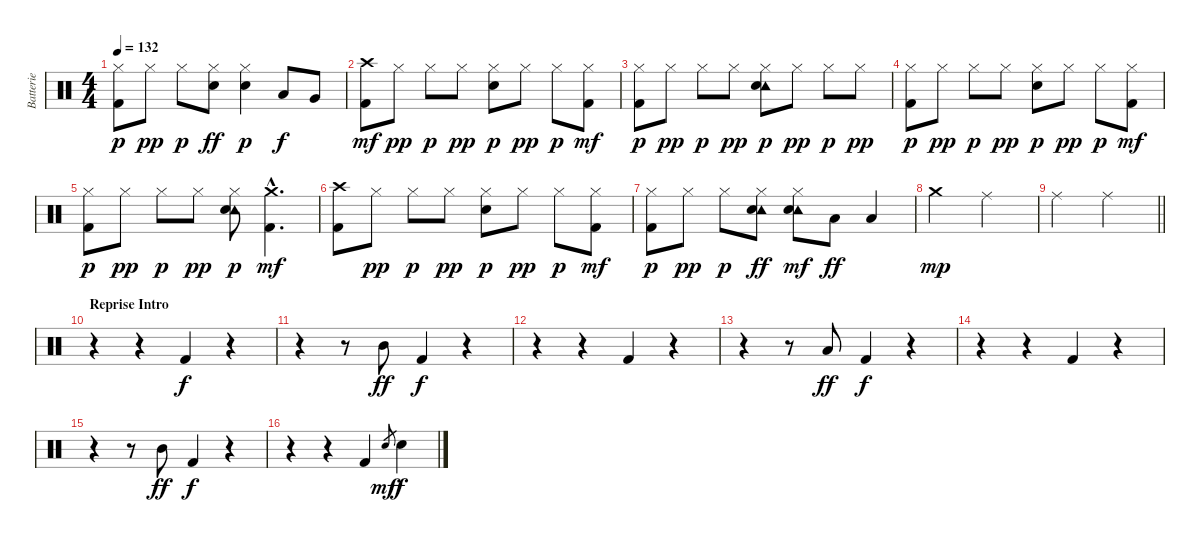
\track ("Batterie" "Batterie") {instrument percussion}
\staff {score}
\articulation defaults
\ts (4 4)
\tempo 132
\clef neutral
\ks c
("Hi-Hat (closed)" "Kick (hit) 2").8{dy p} "Hi-Hat (closed)".8{dy pp} "Hi-Hat (closed)".8{dy p} ("Hi-Hat (closed)" "Electric Snare (hit)").8{dy ff} ("Hi-Hat (closed)" "Electric Snare (hit)").4{dy p} "Low Tom (hit)".8{dy f} "Very Low Tom (hit)".8 |
("Crash high (hit)" "Kick (hit) 2").8{dy mf} "Hi-Hat (closed)".8{dy pp} "Hi-Hat (closed)".8{dy p} "Hi-Hat (closed)".8{dy pp} ("Hi-Hat (closed)" "Electric Snare (hit)").8{dy p} "Hi-Hat (closed)".8{dy pp} "Hi-Hat (closed)".8{dy p} ("Hi-Hat (closed)" "Kick (hit) 2").8{dy mf} |
("Hi-Hat (closed)" "Kick (hit) 2").8{dy p} "Hi-Hat (closed)".8{dy pp} "Hi-Hat (closed)".8{dy p} "Hi-Hat (closed)".8{dy pp} ("Hi-Hat (closed)" "Tambourine (hit)" "Electric Snare (hit)").8{dy p} "Hi-Hat (closed)".8{dy pp} "Hi-Hat (closed)".8{dy p} "Hi-Hat (closed)".8{dy pp} |
("Hi-Hat (closed)" "Kick (hit) 2").8{dy p} "Hi-Hat (closed)".8{dy pp} "Hi-Hat (closed)".8{dy p} "Hi-Hat (closed)".8{dy pp} ("Hi-Hat (closed)" "Electric Snare (hit)").8{dy p} "Hi-Hat (closed)".8{dy pp} "Hi-Hat (closed)".8{dy p} ("Hi-Hat (closed)" "Kick (hit) 2").8{dy mf} |
("Hi-Hat (closed)" "Kick (hit) 2").8{dy p} "Hi-Hat (closed)".8{dy pp} "Hi-Hat (closed)".8{dy p} "Hi-Hat (closed)".8{dy pp} ("Hi-Hat (closed)" "Tambourine (hit)" "Electric Snare (hit)").8{dy p} ("Crash medium (hit)"{hac} "Kick (hit) 2"{hac}).4{d dy mf} |
("Crash high (hit)" "Kick (hit) 2").8 "Hi-Hat (closed)".8{dy pp} "Hi-Hat (closed)".8{dy p} "Hi-Hat (closed)".8{dy pp} ("Hi-Hat (closed)" "Electric Snare (hit)").8{dy p} "Hi-Hat (closed)".8{dy pp} "Hi-Hat (closed)".8{dy p} ("Hi-Hat (closed)" "Kick (hit) 2").8{dy mf} |
("Hi-Hat (closed)" "Kick (hit) 2").8{dy p} "Hi-Hat (closed)".8{dy pp} "Hi-Hat (closed)".8{dy p} ("Hi-Hat (closed)" "Tambourine (hit)" "Electric Snare (hit)").8{dy ff} ("Hi-Hat (closed)" "Tambourine (hit)" "Electric Snare (hit)").8{dy mf} "Low Tom (hit)".8{dy ff} "Low Tom (hit)".4 |
"Crash medium (hit)".2{dy mp} "Ride (middle)".2 |
\barLineRight lightlight "Ride (middle)".2 "Ride (middle)".2
|
\section ("" "Reprise Intro")
r.4 r.4 "Kick (hit) 2".4{dy f} r.4 |
r.4 r.8 "Mid Tom (hit)".8{dy ff} "Kick (hit) 2".4{dy f} r.4 |
r.4 r.4 "Kick (hit) 2".4 r.4 |
r.4 r.8 "Low Floor Tom (hit)".8{dy ff} "Kick (hit) 2".4{dy f} r.4 |
r.4 r.4 "Kick (hit) 2".4 r.4 |
r.4 r.8 "Mid Tom (hit)".8{dy ff} "Kick (hit) 2".4{dy f} r.4 |
r.4 r.4 "Kick (hit) 2".4 "Electric Snare (hit)".8{gr dy mf} "Electric Snare (hit)".4{dy f}
